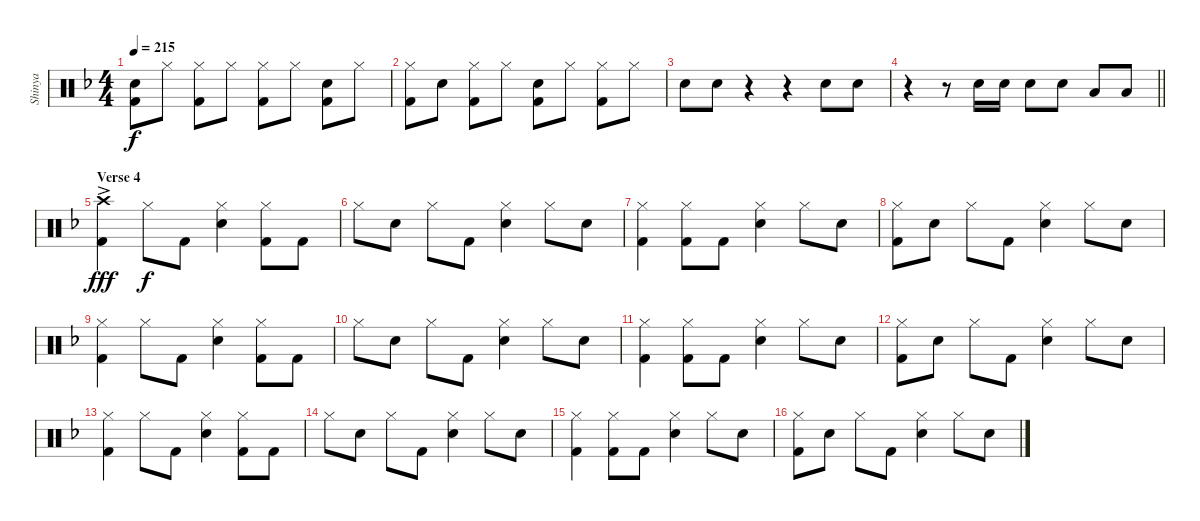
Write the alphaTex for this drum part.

\track ("Shinya" "Shinya") {instrument percussion}
\staff {score}
\articulation defaults
\ts (4 4)
\tempo 215
\clef neutral
\ks f
("Snare (hit) 2" "Kick (hit) 2").8{dy f} "Hi-Hat (closed)".8 ("Hi-Hat (closed)" "Kick (hit) 2").8 "Hi-Hat (closed)".8 ("Hi-Hat (closed)" "Kick (hit) 2").8 "Hi-Hat (closed)".8 ("Snare (hit) 2" "Kick (hit) 2").8 "Hi-Hat (closed)".8 |
("Hi-Hat (closed)" "Kick (hit) 2").8 "Snare (hit) 2".8 ("Hi-Hat (closed)" "Kick (hit) 2").8 "Hi-Hat (closed)".8 ("Snare (hit) 2" "Kick (hit) 2").8 "Hi-Hat (closed)".8 ("Hi-Hat (closed)" "Kick (hit) 2").8 "Hi-Hat (closed)".8 |
"Snare (hit) 2".8 "Snare (hit) 2".8 r.4 r.4 "Snare (hit) 2".8 "Snare (hit) 2".8 |
\barLineRight lightlight
r.4 r.8 "Snare (hit) 2".16 "Snare (hit) 2".16 "Snare (hit) 2".8 "Snare (hit) 2".8 "Low Tom (hit)".8 "Low Tom (hit)".8 |
\section ("" "Verse 4")
("Crash high (hit)"{ac} "Kick (hit) 2").4{dy fff} "Hi-Hat (closed)".8{dy f} "Kick (hit) 2".8 ("Hi-Hat (closed)" "Snare (hit) 2").4 ("Hi-Hat (closed)" "Kick (hit) 2").8 "Kick (hit) 2".8 |
"Hi-Hat (closed)".8 "Snare (hit) 2".8 "Hi-Hat (closed)".8 "Kick (hit) 2".8 ("Hi-Hat (closed)" "Snare (hit) 2").4 "Hi-Hat (closed)".8 "Snare (hit) 2".8 |
("Hi-Hat (closed)" "Kick (hit) 2").4 ("Hi-Hat (closed)" "Kick (hit) 2").8 "Kick (hit) 2".8 ("Hi-Hat (closed)" "Snare (hit) 2").4 "Hi-Hat (closed)".8 "Snare (hit) 2".8 |
("Hi-Hat (closed)" "Kick (hit) 2").8 "Snare (hit) 2".8 "Hi-Hat (closed)".8 "Kick (hit) 2".8 ("Hi-Hat (closed)" "Snare (hit) 2").4 "Hi-Hat (closed)".8 "Snare (hit) 2".8 |
("Hi-Hat (closed)" "Kick (hit) 2").4 "Hi-Hat (closed)".8 "Kick (hit) 2".8 ("Hi-Hat (closed)" "Snare (hit) 2").4 ("Hi-Hat (closed)" "Kick (hit) 2").8 "Kick (hit) 2".8 |
"Hi-Hat (closed)".8 "Snare (hit) 2".8 "Hi-Hat (closed)".8 "Kick (hit) 2".8 ("Hi-Hat (closed)" "Snare (hit) 2").4 "Hi-Hat (closed)".8 "Snare (hit) 2".8 |
("Hi-Hat (closed)" "Kick (hit) 2").4 ("Hi-Hat (closed)" "Kick (hit) 2").8 "Kick (hit) 2".8 ("Hi-Hat (closed)" "Snare (hit) 2").4 "Hi-Hat (closed)".8 "Snare (hit) 2".8 |
("Hi-Hat (closed)" "Kick (hit) 2").8 "Snare (hit) 2".8 "Hi-Hat (closed)".8 "Kick (hit) 2".8 ("Hi-Hat (closed)" "Snare (hit) 2").4 "Hi-Hat (closed)".8 "Snare (hit) 2".8 |
("Hi-Hat (closed)" "Kick (hit) 2").4 "Hi-Hat (closed)".8 "Kick (hit) 2".8 ("Hi-Hat (closed)" "Snare (hit) 2").4 ("Hi-Hat (closed)" "Kick (hit) 2").8 "Kick (hit) 2".8 |
"Hi-Hat (closed)".8 "Snare (hit) 2".8 "Hi-Hat (closed)".8 "Kick (hit) 2".8 ("Hi-Hat (closed)" "Snare (hit) 2").4 "Hi-Hat (closed)".8 "Snare (hit) 2".8 |
("Hi-Hat (closed)" "Kick (hit) 2").4 ("Hi-Hat (closed)" "Kick (hit) 2").8 "Kick (hit) 2".8 ("Hi-Hat (closed)" "Snare (hit) 2").4 "Hi-Hat (closed)".8 "Snare (hit) 2".8 |
("Hi-Hat (closed)" "Kick (hit) 2").8 "Snare (hit) 2".8 "Hi-Hat (closed)".8 "Kick (hit) 2".8 ("Hi-Hat (closed)" "Snare (hit) 2").4 "Hi-Hat (closed)".8 "Snare (hit) 2".8
